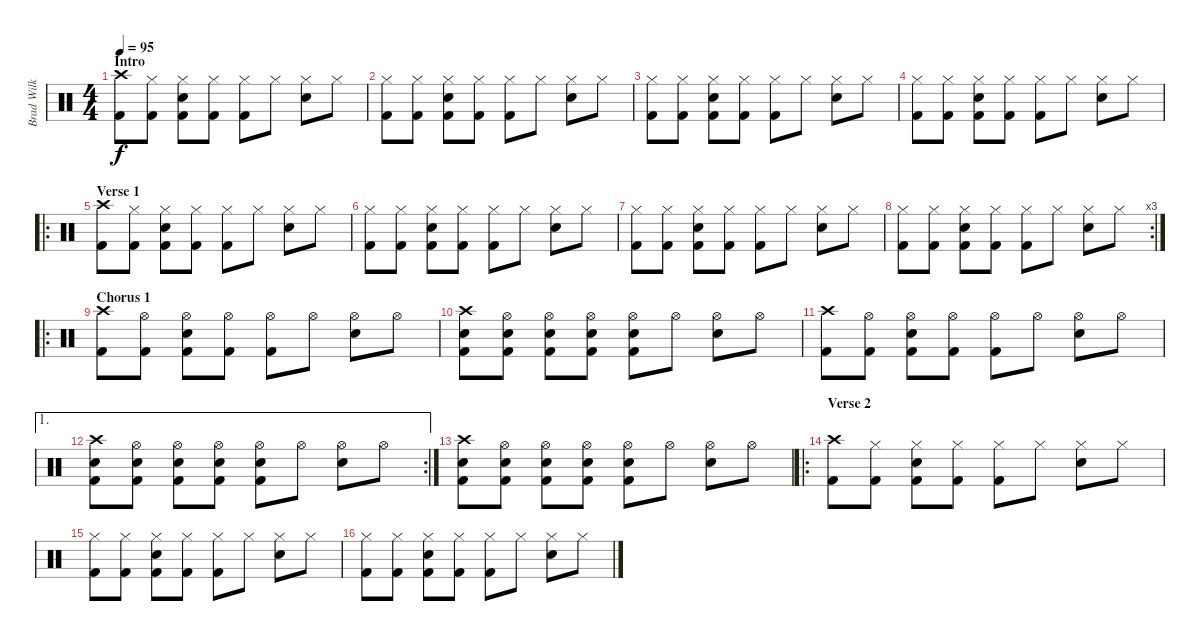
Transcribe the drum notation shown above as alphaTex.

\track ("Brad Wilk" "Brad Wilk") {instrument percussion}
\staff {score}
\articulation defaults
\ts (4 4)
\section ("" "Intro")
\tempo 95
\clef neutral
\ks c
("Crash high (hit)" "Kick (hit) 2").8{dy f} ("Hi-Hat (closed)" "Kick (hit) 2").8 ("Hi-Hat (closed)" "Electric Snare (hit)" "Kick (hit) 2").8 ("Hi-Hat (closed)" "Kick (hit) 2").8 ("Hi-Hat (closed)" "Kick (hit) 2").8 "Hi-Hat (closed)".8 ("Hi-Hat (closed)" "Electric Snare (hit)").8 "Hi-Hat (closed)".8 |
("Hi-Hat (closed)" "Kick (hit) 2").8 ("Hi-Hat (closed)" "Kick (hit) 2").8 ("Hi-Hat (closed)" "Electric Snare (hit)" "Kick (hit) 2").8 ("Hi-Hat (closed)" "Kick (hit) 2").8 ("Hi-Hat (closed)" "Kick (hit) 2").8 "Hi-Hat (closed)".8 ("Hi-Hat (closed)" "Electric Snare (hit)").8 "Hi-Hat (closed)".8 |
("Hi-Hat (closed)" "Kick (hit) 2").8 ("Hi-Hat (closed)" "Kick (hit) 2").8 ("Hi-Hat (closed)" "Electric Snare (hit)" "Kick (hit) 2").8 ("Hi-Hat (closed)" "Kick (hit) 2").8 ("Hi-Hat (closed)" "Kick (hit) 2").8 "Hi-Hat (closed)".8 ("Hi-Hat (closed)" "Electric Snare (hit)").8 "Hi-Hat (closed)".8 |
("Hi-Hat (closed)" "Kick (hit) 2").8 ("Hi-Hat (closed)" "Kick (hit) 2").8 ("Hi-Hat (closed)" "Electric Snare (hit)" "Kick (hit) 2").8 ("Hi-Hat (closed)" "Kick (hit) 2").8 ("Hi-Hat (closed)" "Kick (hit) 2").8 "Hi-Hat (closed)".8 ("Hi-Hat (closed)" "Electric Snare (hit)").8 "Hi-Hat (closed)".8 |
\ro
\section ("" "Verse 1")
("Crash high (hit)" "Kick (hit) 2").8 ("Hi-Hat (closed)" "Kick (hit) 2").8 ("Hi-Hat (closed)" "Electric Snare (hit)" "Kick (hit) 2").8 ("Hi-Hat (closed)" "Kick (hit) 2").8 ("Hi-Hat (closed)" "Kick (hit) 2").8 "Hi-Hat (closed)".8 ("Hi-Hat (closed)" "Electric Snare (hit)").8 "Hi-Hat (closed)".8 |
("Hi-Hat (closed)" "Kick (hit) 2").8 ("Hi-Hat (closed)" "Kick (hit) 2").8 ("Hi-Hat (closed)" "Electric Snare (hit)" "Kick (hit) 2").8 ("Hi-Hat (closed)" "Kick (hit) 2").8 ("Hi-Hat (closed)" "Kick (hit) 2").8 "Hi-Hat (closed)".8 ("Hi-Hat (closed)" "Electric Snare (hit)").8 "Hi-Hat (closed)".8 |
("Hi-Hat (closed)" "Kick (hit) 2").8 ("Hi-Hat (closed)" "Kick (hit) 2").8 ("Hi-Hat (closed)" "Electric Snare (hit)" "Kick (hit) 2").8 ("Hi-Hat (closed)" "Kick (hit) 2").8 ("Hi-Hat (closed)" "Kick (hit) 2").8 "Hi-Hat (closed)".8 ("Hi-Hat (closed)" "Electric Snare (hit)").8 "Hi-Hat (closed)".8 |
\rc 3
("Hi-Hat (closed)" "Kick (hit) 2").8 ("Hi-Hat (closed)" "Kick (hit) 2").8 ("Hi-Hat (closed)" "Electric Snare (hit)" "Kick (hit) 2").8 ("Hi-Hat (closed)" "Kick (hit) 2").8 ("Hi-Hat (closed)" "Kick (hit) 2").8 "Hi-Hat (closed)".8 ("Hi-Hat (closed)" "Electric Snare (hit)").8 "Hi-Hat (closed)".8 |
\ro
\section ("" "Chorus 1")
("Crash high (hit)" "Kick (hit) 2").8 ("Hi-Hat (open)" "Kick (hit) 2").8 ("Hi-Hat (open)" "Electric Snare (hit)" "Kick (hit) 2").8 ("Hi-Hat (open)" "Kick (hit) 2").8 ("Hi-Hat (open)" "Kick (hit) 2").8 "Hi-Hat (open)".8 ("Hi-Hat (open)" "Electric Snare (hit)").8 "Hi-Hat (open)".8 |
("Crash high (hit)" "Electric Snare (hit)" "Kick (hit) 2").8 ("Hi-Hat (open)" "Electric Snare (hit)" "Kick (hit) 2").8 ("Hi-Hat (open)" "Electric Snare (hit)" "Kick (hit) 2").8 ("Hi-Hat (open)" "Electric Snare (hit)" "Kick (hit) 2").8 ("Hi-Hat (open)" "Electric Snare (hit)" "Kick (hit) 2").8 "Hi-Hat (open)".8 ("Hi-Hat (open)" "Electric Snare (hit)").8 "Hi-Hat (open)".8 |
("Crash high (hit)" "Kick (hit) 2").8 ("Hi-Hat (open)" "Kick (hit) 2").8 ("Hi-Hat (open)" "Electric Snare (hit)" "Kick (hit) 2").8 ("Hi-Hat (open)" "Kick (hit) 2").8 ("Hi-Hat (open)" "Kick (hit) 2").8 "Hi-Hat (open)".8 ("Hi-Hat (open)" "Electric Snare (hit)").8 "Hi-Hat (open)".8 |
\ae 1
\rc 2
("Crash high (hit)" "Electric Snare (hit)" "Kick (hit) 2").8 ("Hi-Hat (open)" "Electric Snare (hit)" "Kick (hit) 2").8 ("Hi-Hat (open)" "Electric Snare (hit)" "Kick (hit) 2").8 ("Hi-Hat (open)" "Electric Snare (hit)" "Kick (hit) 2").8 ("Hi-Hat (open)" "Electric Snare (hit)" "Kick (hit) 2").8 "Hi-Hat (open)".8 ("Hi-Hat (open)" "Electric Snare (hit)").8 "Hi-Hat (open)".8 |
("Crash high (hit)" "Electric Snare (hit)" "Kick (hit) 2").8 ("Hi-Hat (open)" "Electric Snare (hit)" "Kick (hit) 2").8 ("Hi-Hat (open)" "Electric Snare (hit)" "Kick (hit) 2").8 ("Hi-Hat (open)" "Electric Snare (hit)" "Kick (hit) 2").8 ("Hi-Hat (open)" "Electric Snare (hit)" "Kick (hit) 2").8 "Hi-Hat (open)".8 ("Hi-Hat (open)" "Electric Snare (hit)").8 "Hi-Hat (open)".8 |
\ro
\section ("" "Verse 2")
("Crash high (hit)" "Kick (hit) 2").8 ("Hi-Hat (closed)" "Kick (hit) 2").8 ("Hi-Hat (closed)" "Electric Snare (hit)" "Kick (hit) 2").8 ("Hi-Hat (closed)" "Kick (hit) 2").8 ("Hi-Hat (closed)" "Kick (hit) 2").8 "Hi-Hat (closed)".8 ("Hi-Hat (closed)" "Electric Snare (hit)").8 "Hi-Hat (closed)".8 |
("Hi-Hat (closed)" "Kick (hit) 2").8 ("Hi-Hat (closed)" "Kick (hit) 2").8 ("Hi-Hat (closed)" "Electric Snare (hit)" "Kick (hit) 2").8 ("Hi-Hat (closed)" "Kick (hit) 2").8 ("Hi-Hat (closed)" "Kick (hit) 2").8 "Hi-Hat (closed)".8 ("Hi-Hat (closed)" "Electric Snare (hit)").8 "Hi-Hat (closed)".8 |
("Hi-Hat (closed)" "Kick (hit) 2").8 ("Hi-Hat (closed)" "Kick (hit) 2").8 ("Hi-Hat (closed)" "Electric Snare (hit)" "Kick (hit) 2").8 ("Hi-Hat (closed)" "Kick (hit) 2").8 ("Hi-Hat (closed)" "Kick (hit) 2").8 "Hi-Hat (closed)".8 ("Hi-Hat (closed)" "Electric Snare (hit)").8 "Hi-Hat (closed)".8
